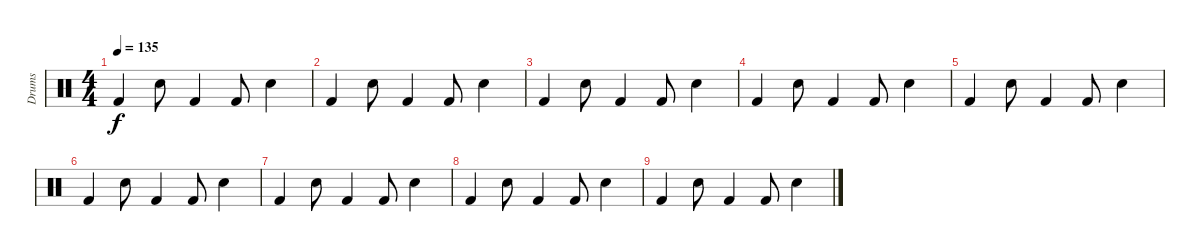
\track ("Drums" "Drums") {instrument percussion}
\staff {score}
\articulation defaults
\ts (4 4)
\tempo 135
\clef neutral
\ks c "Kick (hit) 2".4{dy f} "Electric Snare (hit)".8 "Kick (hit) 2".4 "Kick (hit) 2".8 "Electric Snare (hit)".4
|
"Kick (hit) 2".4 "Electric Snare (hit)".8 "Kick (hit) 2".4 "Kick (hit) 2".8 "Electric Snare (hit)".4 |
"Kick (hit) 2".4 "Electric Snare (hit)".8 "Kick (hit) 2".4 "Kick (hit) 2".8 "Electric Snare (hit)".4 |
"Kick (hit) 2".4 "Electric Snare (hit)".8 "Kick (hit) 2".4 "Kick (hit) 2".8 "Electric Snare (hit)".4 |
"Kick (hit) 2".4 "Electric Snare (hit)".8 "Kick (hit) 2".4 "Kick (hit) 2".8 "Electric Snare (hit)".4 |
"Kick (hit) 2".4 "Electric Snare (hit)".8 "Kick (hit) 2".4 "Kick (hit) 2".8 "Electric Snare (hit)".4 |
"Kick (hit) 2".4 "Electric Snare (hit)".8 "Kick (hit) 2".4 "Kick (hit) 2".8 "Electric Snare (hit)".4 |
"Kick (hit) 2".4 "Electric Snare (hit)".8 "Kick (hit) 2".4 "Kick (hit) 2".8 "Electric Snare (hit)".4 |
"Kick (hit) 2".4 "Electric Snare (hit)".8 "Kick (hit) 2".4 "Kick (hit) 2".8 "Electric Snare (hit)".4
